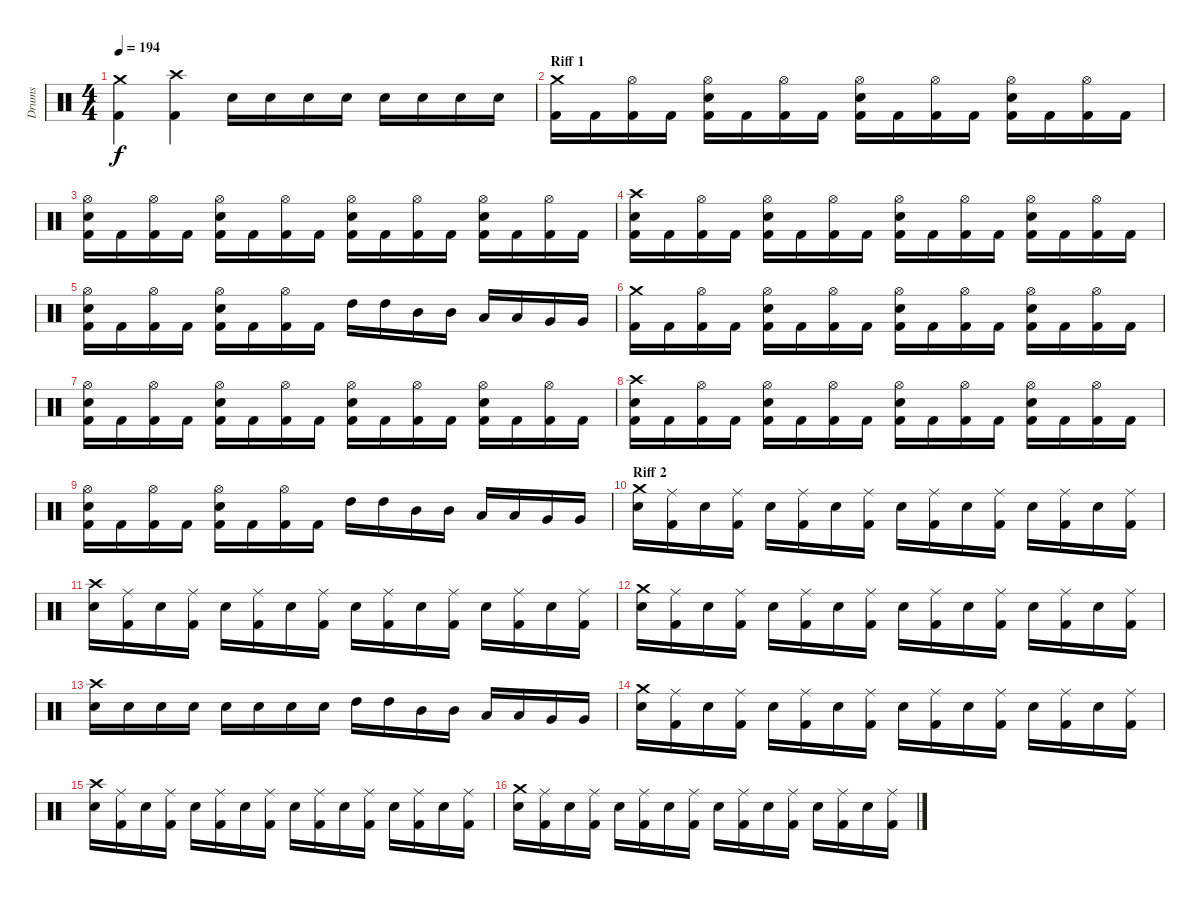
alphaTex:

\track ("Drums" "Drums") {instrument percussion}
\staff {score}
\articulation defaults
\ts (4 4)
\tempo 194
\clef neutral
\ks c
("Crash medium (hit)" "Kick (hit) 2").4{dy f} ("Crash high (hit)" "Kick (hit) 2").4 "Electric Snare (hit)".16 "Electric Snare (hit)".16 "Electric Snare (hit)".16 "Electric Snare (hit)".16 "Electric Snare (hit)".16 "Electric Snare (hit)".16 "Electric Snare (hit)".16 "Electric Snare (hit)".16 |
\section ("" "Riff 1")
("Crash medium (hit)" "Kick (hit) 2").16 "Kick (hit) 2".16 ("Hi-Hat (open)" "Kick (hit) 2").16 "Kick (hit) 2".16 ("Hi-Hat (open)" "Electric Snare (hit)" "Kick (hit) 2").16 "Kick (hit) 2".16 ("Hi-Hat (open)" "Kick (hit) 2").16 "Kick (hit) 2".16 ("Hi-Hat (open)" "Electric Snare (hit)" "Kick (hit) 2").16 "Kick (hit) 2".16 ("Hi-Hat (open)" "Kick (hit) 2").16 "Kick (hit) 2".16 ("Hi-Hat (open)" "Electric Snare (hit)" "Kick (hit) 2").16 "Kick (hit) 2".16 ("Hi-Hat (open)" "Kick (hit) 2").16 "Kick (hit) 2".16 |
("Hi-Hat (open)" "Electric Snare (hit)" "Kick (hit) 2").16 "Kick (hit) 2".16 ("Hi-Hat (open)" "Kick (hit) 2").16 "Kick (hit) 2".16 ("Hi-Hat (open)" "Electric Snare (hit)" "Kick (hit) 2").16 "Kick (hit) 2".16 ("Hi-Hat (open)" "Kick (hit) 2").16 "Kick (hit) 2".16 ("Hi-Hat (open)" "Electric Snare (hit)" "Kick (hit) 2").16 "Kick (hit) 2".16 ("Hi-Hat (open)" "Kick (hit) 2").16 "Kick (hit) 2".16 ("Hi-Hat (open)" "Electric Snare (hit)" "Kick (hit) 2").16 "Kick (hit) 2".16 ("Hi-Hat (open)" "Kick (hit) 2").16 "Kick (hit) 2".16 |
("Crash high (hit)" "Electric Snare (hit)" "Kick (hit) 2").16 "Kick (hit) 2".16 ("Hi-Hat (open)" "Kick (hit) 2").16 "Kick (hit) 2".16 ("Hi-Hat (open)" "Electric Snare (hit)" "Kick (hit) 2").16 "Kick (hit) 2".16 ("Hi-Hat (open)" "Kick (hit) 2").16 "Kick (hit) 2".16 ("Hi-Hat (open)" "Electric Snare (hit)" "Kick (hit) 2").16 "Kick (hit) 2".16 ("Hi-Hat (open)" "Kick (hit) 2").16 "Kick (hit) 2".16 ("Hi-Hat (open)" "Electric Snare (hit)" "Kick (hit) 2").16 "Kick (hit) 2".16 ("Hi-Hat (open)" "Kick (hit) 2").16 "Kick (hit) 2".16 |
("Hi-Hat (open)" "Electric Snare (hit)" "Kick (hit) 2").16 "Kick (hit) 2".16 ("Hi-Hat (open)" "Kick (hit) 2").16 "Kick (hit) 2".16 ("Hi-Hat (open)" "Electric Snare (hit)" "Kick (hit) 2").16 "Kick (hit) 2".16 ("Hi-Hat (open)" "Kick (hit) 2").16 "Kick (hit) 2".16 "High Tom (hit)".16 "High Tom (hit)".16 "Mid Tom (hit)".16 "Mid Tom (hit)".16 "Low Tom (hit)".16 "Low Tom (hit)".16 "Very Low Tom (hit)".16 "Very Low Tom (hit)".16 |
("Crash medium (hit)" "Kick (hit) 2").16 "Kick (hit) 2".16 ("Hi-Hat (open)" "Kick (hit) 2").16 "Kick (hit) 2".16 ("Hi-Hat (open)" "Electric Snare (hit)" "Kick (hit) 2").16 "Kick (hit) 2".16 ("Hi-Hat (open)" "Kick (hit) 2").16 "Kick (hit) 2".16 ("Hi-Hat (open)" "Electric Snare (hit)" "Kick (hit) 2").16 "Kick (hit) 2".16 ("Hi-Hat (open)" "Kick (hit) 2").16 "Kick (hit) 2".16 ("Hi-Hat (open)" "Electric Snare (hit)" "Kick (hit) 2").16 "Kick (hit) 2".16 ("Hi-Hat (open)" "Kick (hit) 2").16 "Kick (hit) 2".16 |
("Hi-Hat (open)" "Electric Snare (hit)" "Kick (hit) 2").16 "Kick (hit) 2".16 ("Hi-Hat (open)" "Kick (hit) 2").16 "Kick (hit) 2".16 ("Hi-Hat (open)" "Electric Snare (hit)" "Kick (hit) 2").16 "Kick (hit) 2".16 ("Hi-Hat (open)" "Kick (hit) 2").16 "Kick (hit) 2".16 ("Hi-Hat (open)" "Electric Snare (hit)" "Kick (hit) 2").16 "Kick (hit) 2".16 ("Hi-Hat (open)" "Kick (hit) 2").16 "Kick (hit) 2".16 ("Hi-Hat (open)" "Electric Snare (hit)" "Kick (hit) 2").16 "Kick (hit) 2".16 ("Hi-Hat (open)" "Kick (hit) 2").16 "Kick (hit) 2".16 |
("Crash high (hit)" "Electric Snare (hit)" "Kick (hit) 2").16 "Kick (hit) 2".16 ("Hi-Hat (open)" "Kick (hit) 2").16 "Kick (hit) 2".16 ("Hi-Hat (open)" "Electric Snare (hit)" "Kick (hit) 2").16 "Kick (hit) 2".16 ("Hi-Hat (open)" "Kick (hit) 2").16 "Kick (hit) 2".16 ("Hi-Hat (open)" "Electric Snare (hit)" "Kick (hit) 2").16 "Kick (hit) 2".16 ("Hi-Hat (open)" "Kick (hit) 2").16 "Kick (hit) 2".16 ("Hi-Hat (open)" "Electric Snare (hit)" "Kick (hit) 2").16 "Kick (hit) 2".16 ("Hi-Hat (open)" "Kick (hit) 2").16 "Kick (hit) 2".16 |
("Hi-Hat (open)" "Electric Snare (hit)" "Kick (hit) 2").16 "Kick (hit) 2".16 ("Hi-Hat (open)" "Kick (hit) 2").16 "Kick (hit) 2".16 ("Hi-Hat (open)" "Electric Snare (hit)" "Kick (hit) 2").16 "Kick (hit) 2".16 ("Hi-Hat (open)" "Kick (hit) 2").16 "Kick (hit) 2".16 "High Tom (hit)".16 "High Tom (hit)".16 "Mid Tom (hit)".16 "Mid Tom (hit)".16 "Low Tom (hit)".16 "Low Tom (hit)".16 "Very Low Tom (hit)".16 "Very Low Tom (hit)".16 |
\section ("" "Riff 2")
("Crash medium (hit)" "Electric Snare (hit)").16 ("Ride (middle)" "Kick (hit) 2").16 "Electric Snare (hit)".16 ("Ride (middle)" "Kick (hit) 2").16 "Electric Snare (hit)".16 ("Ride (middle)" "Kick (hit) 2").16 "Electric Snare (hit)".16 ("Ride (middle)" "Kick (hit) 2").16 "Electric Snare (hit)".16 ("Ride (middle)" "Kick (hit) 2").16 "Electric Snare (hit)".16 ("Ride (middle)" "Kick (hit) 2").16 "Electric Snare (hit)".16 ("Ride (middle)" "Kick (hit) 2").16 "Electric Snare (hit)".16 ("Ride (middle)" "Kick (hit) 2").16 |
("Crash high (hit)" "Electric Snare (hit)").16 ("Ride (middle)" "Kick (hit) 2").16 "Electric Snare (hit)".16 ("Ride (middle)" "Kick (hit) 2").16 "Electric Snare (hit)".16 ("Ride (middle)" "Kick (hit) 2").16 "Electric Snare (hit)".16 ("Ride (middle)" "Kick (hit) 2").16 "Electric Snare (hit)".16 ("Ride (middle)" "Kick (hit) 2").16 "Electric Snare (hit)".16 ("Ride (middle)" "Kick (hit) 2").16 "Electric Snare (hit)".16 ("Ride (middle)" "Kick (hit) 2").16 "Electric Snare (hit)".16 ("Ride (middle)" "Kick (hit) 2").16 |
("Crash medium (hit)" "Electric Snare (hit)").16 ("Ride (middle)" "Kick (hit) 2").16 "Electric Snare (hit)".16 ("Ride (middle)" "Kick (hit) 2").16 "Electric Snare (hit)".16 ("Ride (middle)" "Kick (hit) 2").16 "Electric Snare (hit)".16 ("Ride (middle)" "Kick (hit) 2").16 "Electric Snare (hit)".16 ("Ride (middle)" "Kick (hit) 2").16 "Electric Snare (hit)".16 ("Ride (middle)" "Kick (hit) 2").16 "Electric Snare (hit)".16 ("Ride (middle)" "Kick (hit) 2").16 "Electric Snare (hit)".16 ("Ride (middle)" "Kick (hit) 2").16 |
("Crash high (hit)" "Electric Snare (hit)").16 "Electric Snare (hit)".16 "Electric Snare (hit)".16 "Electric Snare (hit)".16 "Electric Snare (hit)".16 "Electric Snare (hit)".16 "Electric Snare (hit)".16 "Electric Snare (hit)".16 "High Tom (hit)".16 "High Tom (hit)".16 "Mid Tom (hit)".16 "Mid Tom (hit)".16 "Low Tom (hit)".16 "Low Tom (hit)".16 "Very Low Tom (hit)".16 "Very Low Tom (hit)".16 |
("Crash medium (hit)" "Electric Snare (hit)").16 ("Ride (middle)" "Kick (hit) 2").16 "Electric Snare (hit)".16 ("Ride (middle)" "Kick (hit) 2").16 "Electric Snare (hit)".16 ("Ride (middle)" "Kick (hit) 2").16 "Electric Snare (hit)".16 ("Ride (middle)" "Kick (hit) 2").16 "Electric Snare (hit)".16 ("Ride (middle)" "Kick (hit) 2").16 "Electric Snare (hit)".16 ("Ride (middle)" "Kick (hit) 2").16 "Electric Snare (hit)".16 ("Ride (middle)" "Kick (hit) 2").16 "Electric Snare (hit)".16 ("Ride (middle)" "Kick (hit) 2").16 |
("Crash high (hit)" "Electric Snare (hit)").16 ("Ride (middle)" "Kick (hit) 2").16 "Electric Snare (hit)".16 ("Ride (middle)" "Kick (hit) 2").16 "Electric Snare (hit)".16 ("Ride (middle)" "Kick (hit) 2").16 "Electric Snare (hit)".16 ("Ride (middle)" "Kick (hit) 2").16 "Electric Snare (hit)".16 ("Ride (middle)" "Kick (hit) 2").16 "Electric Snare (hit)".16 ("Ride (middle)" "Kick (hit) 2").16 "Electric Snare (hit)".16 ("Ride (middle)" "Kick (hit) 2").16 "Electric Snare (hit)".16 ("Ride (middle)" "Kick (hit) 2").16 |
("Crash medium (hit)" "Electric Snare (hit)").16 ("Ride (middle)" "Kick (hit) 2").16 "Electric Snare (hit)".16 ("Ride (middle)" "Kick (hit) 2").16 "Electric Snare (hit)".16 ("Ride (middle)" "Kick (hit) 2").16 "Electric Snare (hit)".16 ("Ride (middle)" "Kick (hit) 2").16 "Electric Snare (hit)".16 ("Ride (middle)" "Kick (hit) 2").16 "Electric Snare (hit)".16 ("Ride (middle)" "Kick (hit) 2").16 "Electric Snare (hit)".16 ("Ride (middle)" "Kick (hit) 2").16 "Electric Snare (hit)".16 ("Ride (middle)" "Kick (hit) 2").16
